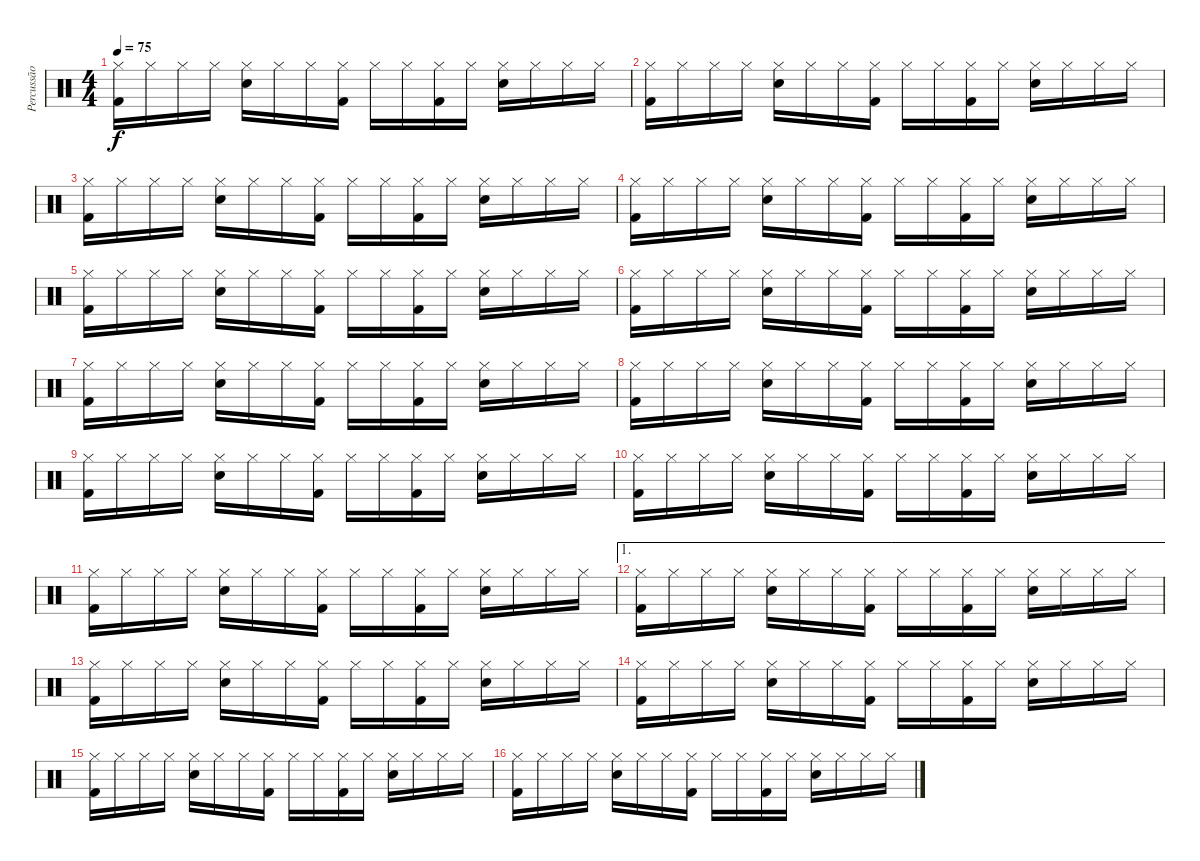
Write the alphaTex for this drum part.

\track ("Percussão" "Percussão") {instrument percussion}
\staff {score}
\articulation defaults
\ts (4 4)
\tempo 75
\clef neutral
\ks c
("Hi-Hat (closed)" "Kick (hit) 2").16{dy f} "Hi-Hat (closed)".16 "Hi-Hat (closed)".16 "Hi-Hat (closed)".16 ("Hi-Hat (closed)" "Electric Snare (hit)").16 "Hi-Hat (closed)".16 "Hi-Hat (closed)".16 ("Hi-Hat (closed)" "Kick (hit) 2").16 "Hi-Hat (closed)".16 "Hi-Hat (closed)".16 ("Hi-Hat (closed)" "Kick (hit) 2").16 "Hi-Hat (closed)".16 ("Hi-Hat (closed)" "Electric Snare (hit)").16 "Hi-Hat (closed)".16 "Hi-Hat (closed)".16 "Hi-Hat (closed)".16 |
("Hi-Hat (closed)" "Kick (hit) 2").16 "Hi-Hat (closed)".16 "Hi-Hat (closed)".16 "Hi-Hat (closed)".16 ("Hi-Hat (closed)" "Electric Snare (hit)").16 "Hi-Hat (closed)".16 "Hi-Hat (closed)".16 ("Hi-Hat (closed)" "Kick (hit) 2").16 "Hi-Hat (closed)".16 "Hi-Hat (closed)".16 ("Hi-Hat (closed)" "Kick (hit) 2").16 "Hi-Hat (closed)".16 ("Hi-Hat (closed)" "Electric Snare (hit)").16 "Hi-Hat (closed)".16 "Hi-Hat (closed)".16 "Hi-Hat (closed)".16 |
("Hi-Hat (closed)" "Kick (hit) 2").16 "Hi-Hat (closed)".16 "Hi-Hat (closed)".16 "Hi-Hat (closed)".16 ("Hi-Hat (closed)" "Electric Snare (hit)").16 "Hi-Hat (closed)".16 "Hi-Hat (closed)".16 ("Hi-Hat (closed)" "Kick (hit) 2").16 "Hi-Hat (closed)".16 "Hi-Hat (closed)".16 ("Hi-Hat (closed)" "Kick (hit) 2").16 "Hi-Hat (closed)".16 ("Hi-Hat (closed)" "Electric Snare (hit)").16 "Hi-Hat (closed)".16 "Hi-Hat (closed)".16 "Hi-Hat (closed)".16 |
("Hi-Hat (closed)" "Kick (hit) 2").16 "Hi-Hat (closed)".16 "Hi-Hat (closed)".16 "Hi-Hat (closed)".16 ("Hi-Hat (closed)" "Electric Snare (hit)").16 "Hi-Hat (closed)".16 "Hi-Hat (closed)".16 ("Hi-Hat (closed)" "Kick (hit) 2").16 "Hi-Hat (closed)".16 "Hi-Hat (closed)".16 ("Hi-Hat (closed)" "Kick (hit) 2").16 "Hi-Hat (closed)".16 ("Hi-Hat (closed)" "Electric Snare (hit)").16 "Hi-Hat (closed)".16 "Hi-Hat (closed)".16 "Hi-Hat (closed)".16 |
("Hi-Hat (closed)" "Kick (hit) 2").16 "Hi-Hat (closed)".16 "Hi-Hat (closed)".16 "Hi-Hat (closed)".16 ("Hi-Hat (closed)" "Electric Snare (hit)").16 "Hi-Hat (closed)".16 "Hi-Hat (closed)".16 ("Hi-Hat (closed)" "Kick (hit) 2").16 "Hi-Hat (closed)".16 "Hi-Hat (closed)".16 ("Hi-Hat (closed)" "Kick (hit) 2").16 "Hi-Hat (closed)".16 ("Hi-Hat (closed)" "Electric Snare (hit)").16 "Hi-Hat (closed)".16 "Hi-Hat (closed)".16 "Hi-Hat (closed)".16 |
("Hi-Hat (closed)" "Kick (hit) 2").16 "Hi-Hat (closed)".16 "Hi-Hat (closed)".16 "Hi-Hat (closed)".16 ("Hi-Hat (closed)" "Electric Snare (hit)").16 "Hi-Hat (closed)".16 "Hi-Hat (closed)".16 ("Hi-Hat (closed)" "Kick (hit) 2").16 "Hi-Hat (closed)".16 "Hi-Hat (closed)".16 ("Hi-Hat (closed)" "Kick (hit) 2").16 "Hi-Hat (closed)".16 ("Hi-Hat (closed)" "Electric Snare (hit)").16 "Hi-Hat (closed)".16 "Hi-Hat (closed)".16 "Hi-Hat (closed)".16 |
("Hi-Hat (closed)" "Kick (hit) 2").16 "Hi-Hat (closed)".16 "Hi-Hat (closed)".16 "Hi-Hat (closed)".16 ("Hi-Hat (closed)" "Electric Snare (hit)").16 "Hi-Hat (closed)".16 "Hi-Hat (closed)".16 ("Hi-Hat (closed)" "Kick (hit) 2").16 "Hi-Hat (closed)".16 "Hi-Hat (closed)".16 ("Hi-Hat (closed)" "Kick (hit) 2").16 "Hi-Hat (closed)".16 ("Hi-Hat (closed)" "Electric Snare (hit)").16 "Hi-Hat (closed)".16 "Hi-Hat (closed)".16 "Hi-Hat (closed)".16 |
("Hi-Hat (closed)" "Kick (hit) 2").16 "Hi-Hat (closed)".16 "Hi-Hat (closed)".16 "Hi-Hat (closed)".16 ("Hi-Hat (closed)" "Electric Snare (hit)").16 "Hi-Hat (closed)".16 "Hi-Hat (closed)".16 ("Hi-Hat (closed)" "Kick (hit) 2").16 "Hi-Hat (closed)".16 "Hi-Hat (closed)".16 ("Hi-Hat (closed)" "Kick (hit) 2").16 "Hi-Hat (closed)".16 ("Hi-Hat (closed)" "Electric Snare (hit)").16 "Hi-Hat (closed)".16 "Hi-Hat (closed)".16 "Hi-Hat (closed)".16 |
("Hi-Hat (closed)" "Kick (hit) 2").16 "Hi-Hat (closed)".16 "Hi-Hat (closed)".16 "Hi-Hat (closed)".16 ("Hi-Hat (closed)" "Electric Snare (hit)").16 "Hi-Hat (closed)".16 "Hi-Hat (closed)".16 ("Hi-Hat (closed)" "Kick (hit) 2").16 "Hi-Hat (closed)".16 "Hi-Hat (closed)".16 ("Hi-Hat (closed)" "Kick (hit) 2").16 "Hi-Hat (closed)".16 ("Hi-Hat (closed)" "Electric Snare (hit)").16 "Hi-Hat (closed)".16 "Hi-Hat (closed)".16 "Hi-Hat (closed)".16 |
("Hi-Hat (closed)" "Kick (hit) 2").16 "Hi-Hat (closed)".16 "Hi-Hat (closed)".16 "Hi-Hat (closed)".16 ("Hi-Hat (closed)" "Electric Snare (hit)").16 "Hi-Hat (closed)".16 "Hi-Hat (closed)".16 ("Hi-Hat (closed)" "Kick (hit) 2").16 "Hi-Hat (closed)".16 "Hi-Hat (closed)".16 ("Hi-Hat (closed)" "Kick (hit) 2").16 "Hi-Hat (closed)".16 ("Hi-Hat (closed)" "Electric Snare (hit)").16 "Hi-Hat (closed)".16 "Hi-Hat (closed)".16 "Hi-Hat (closed)".16 |
("Hi-Hat (closed)" "Kick (hit) 2").16 "Hi-Hat (closed)".16 "Hi-Hat (closed)".16 "Hi-Hat (closed)".16 ("Hi-Hat (closed)" "Electric Snare (hit)").16 "Hi-Hat (closed)".16 "Hi-Hat (closed)".16 ("Hi-Hat (closed)" "Kick (hit) 2").16 "Hi-Hat (closed)".16 "Hi-Hat (closed)".16 ("Hi-Hat (closed)" "Kick (hit) 2").16 "Hi-Hat (closed)".16 ("Hi-Hat (closed)" "Electric Snare (hit)").16 "Hi-Hat (closed)".16 "Hi-Hat (closed)".16 "Hi-Hat (closed)".16 |
\ae 1
("Hi-Hat (closed)" "Kick (hit) 2").16 "Hi-Hat (closed)".16 "Hi-Hat (closed)".16 "Hi-Hat (closed)".16 ("Hi-Hat (closed)" "Electric Snare (hit)").16 "Hi-Hat (closed)".16 "Hi-Hat (closed)".16 ("Hi-Hat (closed)" "Kick (hit) 2").16 "Hi-Hat (closed)".16 "Hi-Hat (closed)".16 ("Hi-Hat (closed)" "Kick (hit) 2").16 "Hi-Hat (closed)".16 ("Hi-Hat (closed)" "Electric Snare (hit)").16 "Hi-Hat (closed)".16 "Hi-Hat (closed)".16 "Hi-Hat (closed)".16 |
("Hi-Hat (closed)" "Kick (hit) 2").16 "Hi-Hat (closed)".16 "Hi-Hat (closed)".16 "Hi-Hat (closed)".16 ("Hi-Hat (closed)" "Electric Snare (hit)").16 "Hi-Hat (closed)".16 "Hi-Hat (closed)".16 ("Hi-Hat (closed)" "Kick (hit) 2").16 "Hi-Hat (closed)".16 "Hi-Hat (closed)".16 ("Hi-Hat (closed)" "Kick (hit) 2").16 "Hi-Hat (closed)".16 ("Hi-Hat (closed)" "Electric Snare (hit)").16 "Hi-Hat (closed)".16 "Hi-Hat (closed)".16 "Hi-Hat (closed)".16 |
("Hi-Hat (closed)" "Kick (hit) 2").16 "Hi-Hat (closed)".16 "Hi-Hat (closed)".16 "Hi-Hat (closed)".16 ("Hi-Hat (closed)" "Electric Snare (hit)").16 "Hi-Hat (closed)".16 "Hi-Hat (closed)".16 ("Hi-Hat (closed)" "Kick (hit) 2").16 "Hi-Hat (closed)".16 "Hi-Hat (closed)".16 ("Hi-Hat (closed)" "Kick (hit) 2").16 "Hi-Hat (closed)".16 ("Hi-Hat (closed)" "Electric Snare (hit)").16 "Hi-Hat (closed)".16 "Hi-Hat (closed)".16 "Hi-Hat (closed)".16 |
("Hi-Hat (closed)" "Kick (hit) 2").16 "Hi-Hat (closed)".16 "Hi-Hat (closed)".16 "Hi-Hat (closed)".16 ("Hi-Hat (closed)" "Electric Snare (hit)").16 "Hi-Hat (closed)".16 "Hi-Hat (closed)".16 ("Hi-Hat (closed)" "Kick (hit) 2").16 "Hi-Hat (closed)".16 "Hi-Hat (closed)".16 ("Hi-Hat (closed)" "Kick (hit) 2").16 "Hi-Hat (closed)".16 ("Hi-Hat (closed)" "Electric Snare (hit)").16 "Hi-Hat (closed)".16 "Hi-Hat (closed)".16 "Hi-Hat (closed)".16 |
("Hi-Hat (closed)" "Kick (hit) 2").16 "Hi-Hat (closed)".16 "Hi-Hat (closed)".16 "Hi-Hat (closed)".16 ("Hi-Hat (closed)" "Electric Snare (hit)").16 "Hi-Hat (closed)".16 "Hi-Hat (closed)".16 ("Hi-Hat (closed)" "Kick (hit) 2").16 "Hi-Hat (closed)".16 "Hi-Hat (closed)".16 ("Hi-Hat (closed)" "Kick (hit) 2").16 "Hi-Hat (closed)".16 ("Hi-Hat (closed)" "Electric Snare (hit)").16 "Hi-Hat (closed)".16 "Hi-Hat (closed)".16 "Hi-Hat (closed)".16
